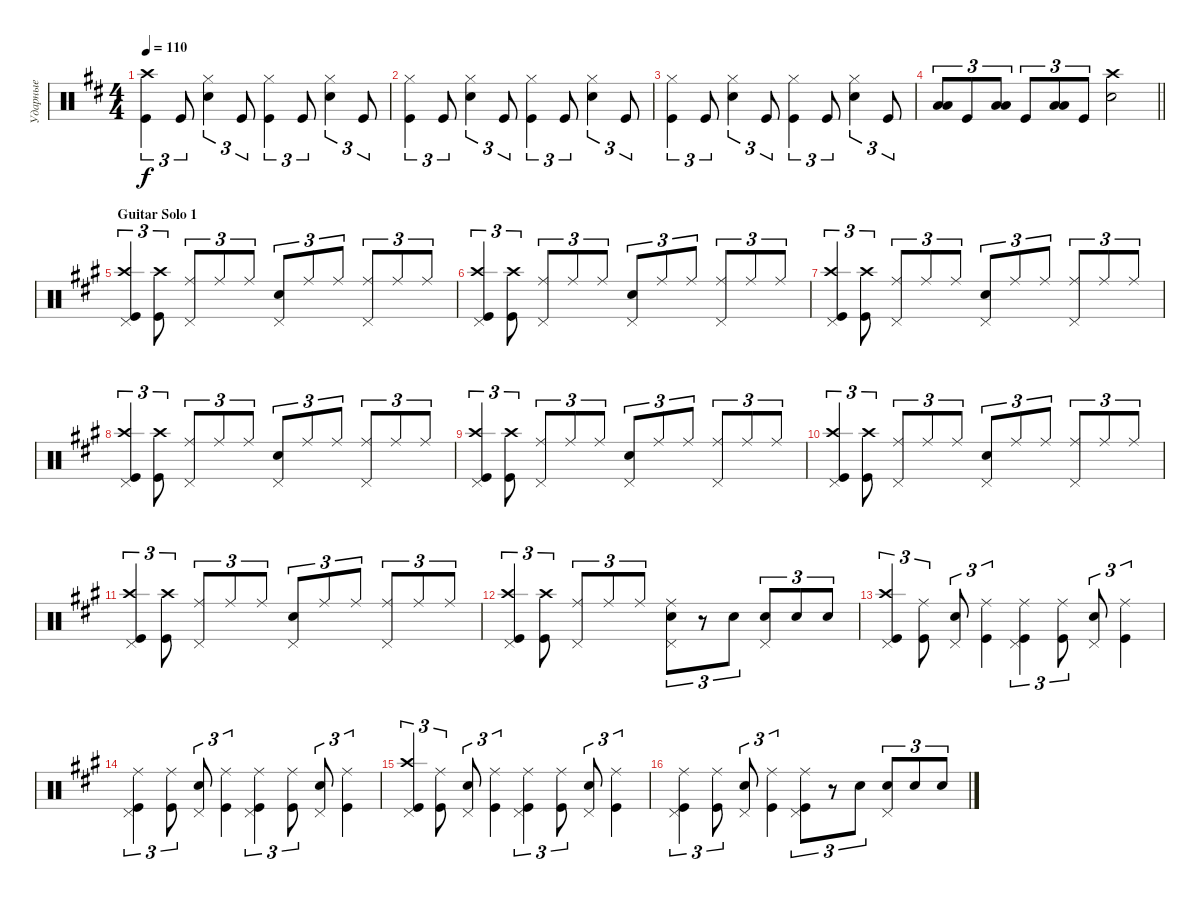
\track ("Ударные" "Ударные") {instrument percussion}
\staff {score}
\articulation defaults
\ts (4 4)
\tempo 110
\clef neutral
\ks bminor
("Kick (hit)" "Crash high (hit)").4{tu (3 2) dy f} "Kick (hit)".8{tu (3 2)} ("Snare (hit) 2" "Hi-Hat (closed)").4{tu (3 2)} "Kick (hit)".8{tu (3 2)} ("Kick (hit)" "Hi-Hat (closed)").4{tu (3 2)} "Kick (hit)".8{tu (3 2)} ("Snare (hit) 2" "Hi-Hat (closed)").4{tu (3 2)} "Kick (hit)".8{tu (3 2)} |
("Kick (hit)" "Hi-Hat (closed)").4{tu (3 2)} "Kick (hit)".8{tu (3 2)} ("Snare (hit) 2" "Hi-Hat (closed)").4{tu (3 2)} "Kick (hit)".8{tu (3 2)} ("Kick (hit)" "Hi-Hat (closed)").4{tu (3 2)} "Kick (hit)".8{tu (3 2)} ("Snare (hit) 2" "Hi-Hat (closed)").4{tu (3 2)} "Kick (hit)".8{tu (3 2)} |
("Kick (hit)" "Hi-Hat (closed)").4{tu (3 2)} "Kick (hit)".8{tu (3 2)} ("Snare (hit) 2" "Hi-Hat (closed)").4{tu (3 2)} "Kick (hit)".8{tu (3 2)} ("Kick (hit)" "Hi-Hat (closed)").4{tu (3 2)} "Kick (hit)".8{tu (3 2)} ("Snare (hit) 2" "Hi-Hat (closed)").4{tu (3 2)} "Kick (hit)".8{tu (3 2)} |
\barLineRight lightlight
("Low Tom (hit)" "Low Tom (hit)").8{tu (3 2) bd 120} "Kick (hit)".8{tu (3 2)} ("Low Tom (hit)" "Low Tom (hit)").8{tu (3 2) bd 120} "Kick (hit)".8{tu (3 2)} ("Low Tom (hit)" "Low Tom (hit)").8{tu (3 2) bd 120} "Kick (hit)".8{tu (3 2)} ("Snare (hit) 2" "Crash high (hit)").2 |
\section ("" "Guitar Solo 1")
\ks f#minor
("Kick (hit)" "Crash high (hit)" "Pedal Hi-Hat (hit)").4{tu (3 2)} ("Kick (hit)" "Crash high (hit)").8{tu (3 2)} ("Ride (middle)" "Pedal Hi-Hat (hit)").8{tu (3 2)} "Ride (middle)".8{tu (3 2)} "Ride (middle)".8{tu (3 2)} ("Pedal Hi-Hat (hit)" "Snare (hit) 2").8{tu (3 2)} "Ride (middle)".8{tu (3 2)} "Ride (middle)".8{tu (3 2)} ("Ride (middle)" "Pedal Hi-Hat (hit)").8{tu (3 2)} "Ride (middle)".8{tu (3 2)} "Ride (middle)".8{tu (3 2)} |
("Kick (hit)" "Crash high (hit)" "Pedal Hi-Hat (hit)").4{tu (3 2)} ("Kick (hit)" "Crash high (hit)").8{tu (3 2)} ("Ride (middle)" "Pedal Hi-Hat (hit)").8{tu (3 2)} "Ride (middle)".8{tu (3 2)} "Ride (middle)".8{tu (3 2)} ("Pedal Hi-Hat (hit)" "Snare (hit) 2").8{tu (3 2)} "Ride (middle)".8{tu (3 2)} "Ride (middle)".8{tu (3 2)} ("Ride (middle)" "Pedal Hi-Hat (hit)").8{tu (3 2)} "Ride (middle)".8{tu (3 2)} "Ride (middle)".8{tu (3 2)} |
("Kick (hit)" "Crash high (hit)" "Pedal Hi-Hat (hit)").4{tu (3 2)} ("Kick (hit)" "Crash high (hit)").8{tu (3 2)} ("Ride (middle)" "Pedal Hi-Hat (hit)").8{tu (3 2)} "Ride (middle)".8{tu (3 2)} "Ride (middle)".8{tu (3 2)} ("Pedal Hi-Hat (hit)" "Snare (hit) 2").8{tu (3 2)} "Ride (middle)".8{tu (3 2)} "Ride (middle)".8{tu (3 2)} ("Ride (middle)" "Pedal Hi-Hat (hit)").8{tu (3 2)} "Ride (middle)".8{tu (3 2)} "Ride (middle)".8{tu (3 2)} |
("Kick (hit)" "Crash high (hit)" "Pedal Hi-Hat (hit)").4{tu (3 2)} ("Kick (hit)" "Crash high (hit)").8{tu (3 2)} ("Ride (middle)" "Pedal Hi-Hat (hit)").8{tu (3 2)} "Ride (middle)".8{tu (3 2)} "Ride (middle)".8{tu (3 2)} ("Pedal Hi-Hat (hit)" "Snare (hit) 2").8{tu (3 2)} "Ride (middle)".8{tu (3 2)} "Ride (middle)".8{tu (3 2)} ("Ride (middle)" "Pedal Hi-Hat (hit)").8{tu (3 2)} "Ride (middle)".8{tu (3 2)} "Ride (middle)".8{tu (3 2)} |
("Kick (hit)" "Crash high (hit)" "Pedal Hi-Hat (hit)").4{tu (3 2)} ("Kick (hit)" "Crash high (hit)").8{tu (3 2)} ("Ride (middle)" "Pedal Hi-Hat (hit)").8{tu (3 2)} "Ride (middle)".8{tu (3 2)} "Ride (middle)".8{tu (3 2)} ("Pedal Hi-Hat (hit)" "Snare (hit) 2").8{tu (3 2)} "Ride (middle)".8{tu (3 2)} "Ride (middle)".8{tu (3 2)} ("Ride (middle)" "Pedal Hi-Hat (hit)").8{tu (3 2)} "Ride (middle)".8{tu (3 2)} "Ride (middle)".8{tu (3 2)} |
("Kick (hit)" "Crash high (hit)" "Pedal Hi-Hat (hit)").4{tu (3 2)} ("Kick (hit)" "Crash high (hit)").8{tu (3 2)} ("Ride (middle)" "Pedal Hi-Hat (hit)").8{tu (3 2)} "Ride (middle)".8{tu (3 2)} "Ride (middle)".8{tu (3 2)} ("Pedal Hi-Hat (hit)" "Snare (hit) 2").8{tu (3 2)} "Ride (middle)".8{tu (3 2)} "Ride (middle)".8{tu (3 2)} ("Ride (middle)" "Pedal Hi-Hat (hit)").8{tu (3 2)} "Ride (middle)".8{tu (3 2)} "Ride (middle)".8{tu (3 2)} |
("Kick (hit)" "Crash high (hit)" "Pedal Hi-Hat (hit)").4{tu (3 2)} ("Kick (hit)" "Crash high (hit)").8{tu (3 2)} ("Ride (middle)" "Pedal Hi-Hat (hit)").8{tu (3 2)} "Ride (middle)".8{tu (3 2)} "Ride (middle)".8{tu (3 2)} ("Pedal Hi-Hat (hit)" "Snare (hit) 2").8{tu (3 2)} "Ride (middle)".8{tu (3 2)} "Ride (middle)".8{tu (3 2)} ("Ride (middle)" "Pedal Hi-Hat (hit)").8{tu (3 2)} "Ride (middle)".8{tu (3 2)} "Ride (middle)".8{tu (3 2)} |
("Kick (hit)" "Crash high (hit)" "Pedal Hi-Hat (hit)").4{tu (3 2)} ("Kick (hit)" "Crash high (hit)").8{tu (3 2)} ("Ride (middle)" "Pedal Hi-Hat (hit)").8{tu (3 2)} "Ride (middle)".8{tu (3 2)} "Ride (middle)".8{tu (3 2)} ("Ride (middle)" "Snare (hit) 2" "Pedal Hi-Hat (hit)").8{tu (3 2)} r.8{tu (3 2)} "Snare (hit) 2".8{tu (3 2)} ("Snare (hit) 2" "Pedal Hi-Hat (hit)").8{tu (3 2)} "Snare (hit) 2".8{tu (3 2)} "Snare (hit) 2".8{tu (3 2)} |
("Kick (hit)" "Pedal Hi-Hat (hit)" "Crash high (hit)").4{tu (3 2)} ("Kick (hit)" "Ride (middle)").8{tu (3 2)} ("Snare (hit) 2" "Pedal Hi-Hat (hit)").8{tu (3 2)} ("Kick (hit)" "Ride (middle)").4{tu (3 2)} ("Kick (hit)" "Ride (middle)" "Pedal Hi-Hat (hit)").4{tu (3 2)} ("Kick (hit)" "Ride (middle)").8{tu (3 2)} ("Snare (hit) 2" "Pedal Hi-Hat (hit)").8{tu (3 2)} ("Kick (hit)" "Ride (middle)").4{tu (3 2)} |
("Kick (hit)" "Ride (middle)" "Pedal Hi-Hat (hit)").4{tu (3 2)} ("Kick (hit)" "Ride (middle)").8{tu (3 2)} ("Snare (hit) 2" "Pedal Hi-Hat (hit)").8{tu (3 2)} ("Kick (hit)" "Ride (middle)").4{tu (3 2)} ("Kick (hit)" "Ride (middle)" "Pedal Hi-Hat (hit)").4{tu (3 2)} ("Kick (hit)" "Ride (middle)").8{tu (3 2)} ("Snare (hit) 2" "Pedal Hi-Hat (hit)").8{tu (3 2)} ("Kick (hit)" "Ride (middle)").4{tu (3 2)} |
("Kick (hit)" "Crash high (hit)" "Pedal Hi-Hat (hit)").4{tu (3 2)} ("Kick (hit)" "Ride (middle)").8{tu (3 2)} ("Snare (hit) 2" "Pedal Hi-Hat (hit)").8{tu (3 2)} ("Kick (hit)" "Ride (middle)").4{tu (3 2)} ("Kick (hit)" "Ride (middle)" "Pedal Hi-Hat (hit)").4{tu (3 2)} ("Kick (hit)" "Ride (middle)").8{tu (3 2)} ("Snare (hit) 2" "Pedal Hi-Hat (hit)").8{tu (3 2)} ("Kick (hit)" "Ride (middle)").4{tu (3 2)} |
("Kick (hit)" "Ride (middle)" "Pedal Hi-Hat (hit)").4{tu (3 2)} ("Kick (hit)" "Ride (middle)").8{tu (3 2)} ("Snare (hit) 2" "Pedal Hi-Hat (hit)").8{tu (3 2)} ("Kick (hit)" "Ride (middle)").4{tu (3 2)} ("Kick (hit)" "Ride (middle)" "Pedal Hi-Hat (hit)").8{tu (3 2)} r.8{tu (3 2)} "Snare (hit) 2".8{tu (3 2)} ("Snare (hit) 2" "Pedal Hi-Hat (hit)").8{tu (3 2)} "Snare (hit) 2".8{tu (3 2)} "Snare (hit) 2".8{tu (3 2)}
